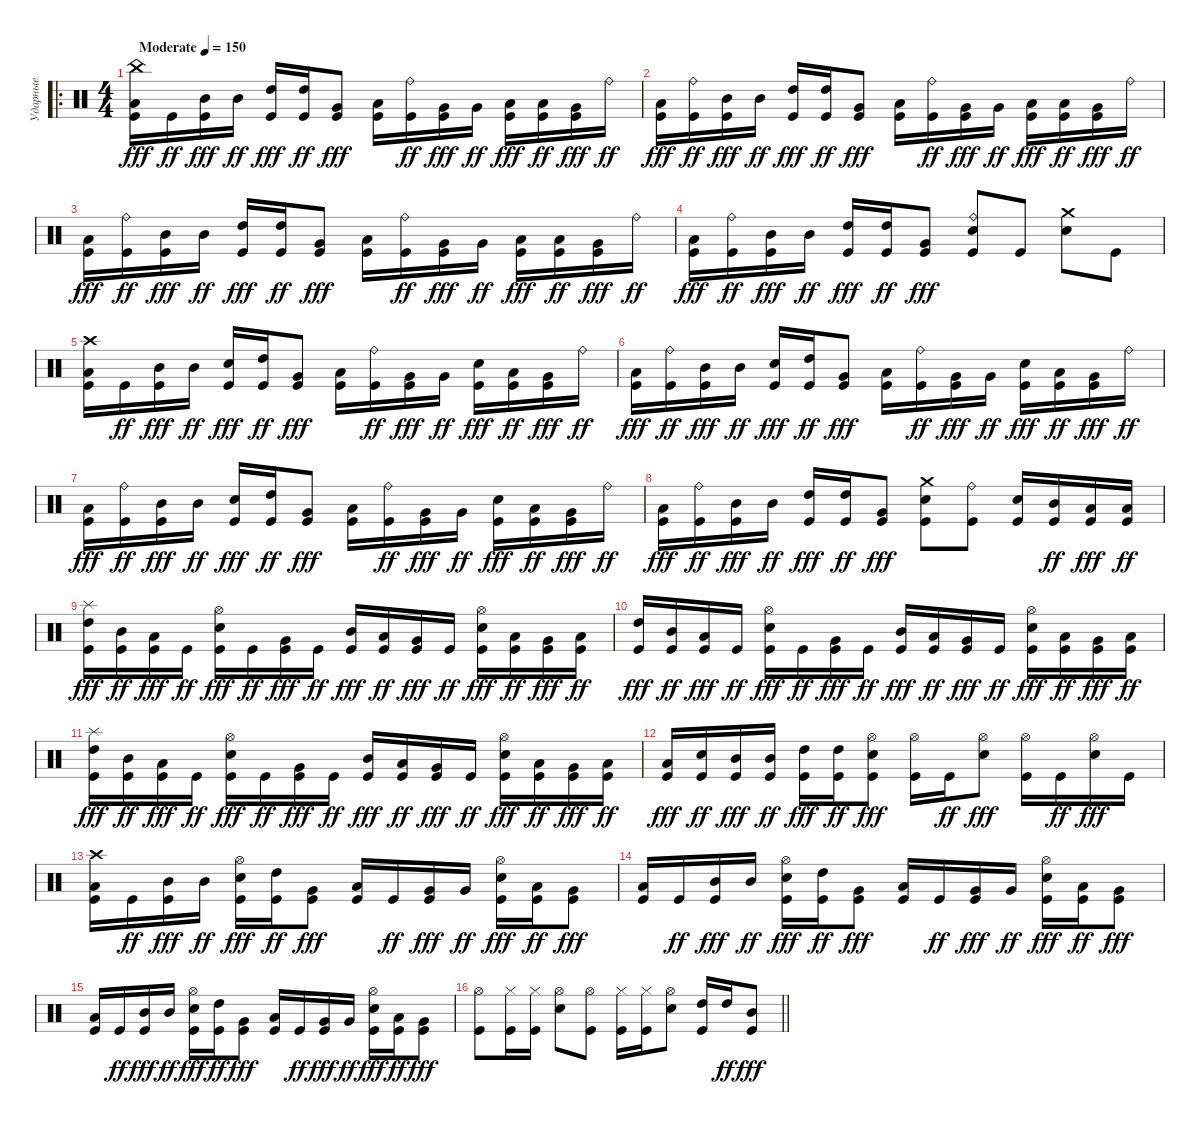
\track ("Ударные" "Ударные") {instrument percussion}
\staff {score}
\articulation defaults
\ro
\ts (4 4)
\tempo (150 "Moderate")
\clef neutral
\ks c
("China (hit)" "Low Tom (hit)" "Kick (hit)").16{dy fff} "Kick (hit)".16{dy ff} ("Mid Tom (hit)" "Kick (hit)").16{dy fff} "Mid Tom (hit)".16{dy ff} ("High Tom (hit)" "Kick (hit)").16{dy fff} ("High Tom (hit)" "Kick (hit)").16{dy ff} ("Very Low Tom (hit)" "Kick (hit)").8{dy fff} ("Low Floor Tom (hit)" "Kick (hit)").16 ("Ride (bell)" "Kick (hit)").16{dy ff} ("Very Low Tom (hit)" "Kick (hit)").16{dy fff} "Very Low Tom (hit)".16{dy ff} ("Low Tom (hit)" "Kick (hit)").16{dy fff} ("Low Tom (hit)" "Kick (hit)").16{dy ff} ("Very Low Tom (hit)" "Kick (hit)").16{dy fff} "Ride (bell)".16{dy ff} |
("Low Tom (hit)" "Kick (hit)").16{dy fff} ("Ride (bell)" "Kick (hit)").16{dy ff} ("Mid Tom (hit)" "Kick (hit)").16{dy fff} "Mid Tom (hit)".16{dy ff} ("High Tom (hit)" "Kick (hit)").16{dy fff} ("High Tom (hit)" "Kick (hit)").16{dy ff} ("Very Low Tom (hit)" "Kick (hit)").8{dy fff} ("Low Floor Tom (hit)" "Kick (hit)").16 ("Ride (bell)" "Kick (hit)").16{dy ff} ("Very Low Tom (hit)" "Kick (hit)").16{dy fff} "Very Low Tom (hit)".16{dy ff} ("Low Tom (hit)" "Kick (hit)").16{dy fff} ("Low Tom (hit)" "Kick (hit)").16{dy ff} ("Very Low Tom (hit)" "Kick (hit)").16{dy fff} "Ride (bell)".16{dy ff} |
("Low Tom (hit)" "Kick (hit)").16{dy fff} ("Ride (bell)" "Kick (hit)").16{dy ff} ("Mid Tom (hit)" "Kick (hit)").16{dy fff} "Mid Tom (hit)".16{dy ff} ("High Tom (hit)" "Kick (hit)").16{dy fff} ("High Tom (hit)" "Kick (hit)").16{dy ff} ("Very Low Tom (hit)" "Kick (hit)").8{dy fff} ("Low Floor Tom (hit)" "Kick (hit)").16 ("Ride (bell)" "Kick (hit)").16{dy ff} ("Very Low Tom (hit)" "Kick (hit)").16{dy fff} "Very Low Tom (hit)".16{dy ff} ("Low Tom (hit)" "Kick (hit)").16{dy fff} ("Low Tom (hit)" "Kick (hit)").16{dy ff} ("Very Low Tom (hit)" "Kick (hit)").16{dy fff} "Ride (bell)".16{dy ff} |
("Low Tom (hit)" "Kick (hit)").16{dy fff} ("Ride (bell)" "Kick (hit)").16{dy ff} ("Mid Tom (hit)" "Kick (hit)").16{dy fff} "Mid Tom (hit)".16{dy ff} ("High Tom (hit)" "Kick (hit)").16{dy fff} ("High Tom (hit)" "Kick (hit)").16{dy ff} ("Very Low Tom (hit)" "Kick (hit)").8{dy fff} ("Ride (bell)" "Electric Snare (hit)" "Kick (hit)").8 "Kick (hit)".8 ("Crash medium (hit)" "Electric Snare (hit)").8 "Kick (hit)".8 |
("Crash high (hit)" "Low Tom (hit)" "Kick (hit)").16 "Kick (hit)".16{dy ff} ("Mid Tom (hit)" "Kick (hit)").16{dy fff} "Mid Tom (hit)".16{dy ff} ("Electric Snare (hit)" "Kick (hit)").16{dy fff} ("High Tom (hit)" "Kick (hit)").16{dy ff} ("Very Low Tom (hit)" "Kick (hit)").8{dy fff} ("Low Floor Tom (hit)" "Kick (hit)").16 ("Ride (bell)" "Kick (hit)").16{dy ff} ("Very Low Tom (hit)" "Kick (hit)").16{dy fff} "Very Low Tom (hit)".16{dy ff} ("Electric Snare (hit)" "Kick (hit)").16{dy fff} ("Low Tom (hit)" "Kick (hit)").16{dy ff} ("Very Low Tom (hit)" "Kick (hit)").16{dy fff} "Ride (bell)".16{dy ff} |
("Low Tom (hit)" "Kick (hit)").16{dy fff} ("Ride (bell)" "Kick (hit)").16{dy ff} ("Mid Tom (hit)" "Kick (hit)").16{dy fff} "Mid Tom (hit)".16{dy ff} ("Electric Snare (hit)" "Kick (hit)").16{dy fff} ("High Tom (hit)" "Kick (hit)").16{dy ff} ("Very Low Tom (hit)" "Kick (hit)").8{dy fff} ("Low Floor Tom (hit)" "Kick (hit)").16 ("Ride (bell)" "Kick (hit)").16{dy ff} ("Very Low Tom (hit)" "Kick (hit)").16{dy fff} "Very Low Tom (hit)".16{dy ff} ("Electric Snare (hit)" "Kick (hit)").16{dy fff} ("Low Tom (hit)" "Kick (hit)").16{dy ff} ("Very Low Tom (hit)" "Kick (hit)").16{dy fff} "Ride (bell)".16{dy ff} |
("Low Tom (hit)" "Kick (hit)").16{dy fff} ("Ride (bell)" "Kick (hit)").16{dy ff} ("Mid Tom (hit)" "Kick (hit)").16{dy fff} "Mid Tom (hit)".16{dy ff} ("Electric Snare (hit)" "Kick (hit)").16{dy fff} ("High Tom (hit)" "Kick (hit)").16{dy ff} ("Very Low Tom (hit)" "Kick (hit)").8{dy fff} ("Low Floor Tom (hit)" "Kick (hit)").16 ("Ride (bell)" "Kick (hit)").16{dy ff} ("Very Low Tom (hit)" "Kick (hit)").16{dy fff} "Very Low Tom (hit)".16{dy ff} ("Electric Snare (hit)" "Kick (hit)").16{dy fff} ("Low Tom (hit)" "Kick (hit)").16{dy ff} ("Very Low Tom (hit)" "Kick (hit)").16{dy fff} "Ride (bell)".16{dy ff} |
("Low Tom (hit)" "Kick (hit)").16{dy fff} ("Ride (bell)" "Kick (hit)").16{dy ff} ("Mid Tom (hit)" "Kick (hit)").16{dy fff} "Mid Tom (hit)".16{dy ff} ("High Tom (hit)" "Kick (hit)").16{dy fff} ("High Tom (hit)" "Kick (hit)").16{dy ff} ("Very Low Tom (hit)" "Kick (hit)").8{dy fff} ("Crash medium (hit)" "Electric Snare (hit)" "Kick (hit)").8 ("Ride (bell)" "Kick (hit)").8 ("Electric Snare (hit)" "Kick (hit)").16 ("Mid Tom (hit)" "Kick (hit)").16{dy ff} ("Low Tom (hit)" "Kick (hit)").16{dy fff} ("Low Floor Tom (hit)" "Kick (hit)").16{dy ff} |
("Splash (hit)" "High Tom (hit)" "Kick (hit)").16{dy fff} ("Mid Tom (hit)" "Kick (hit)").16{dy ff} ("Low Tom (hit)" "Kick (hit)").16{dy fff} "Kick (hit)".16{dy ff} ("Hi-Hat (open)" "Electric Snare (hit)" "Kick (hit)").16{dy fff} "Kick (hit)".16{dy ff} ("Very Low Tom (hit)" "Kick (hit)").16{dy fff} "Kick (hit)".16{dy ff} ("Mid Tom (hit)" "Kick (hit)").16{dy fff} ("Low Tom (hit)" "Kick (hit)").16{dy ff} ("Very Low Tom (hit)" "Kick (hit)").16{dy fff} "Kick (hit)".16{dy ff} ("Hi-Hat (open)" "Electric Snare (hit)" "Kick (hit)").16{dy fff} ("Low Tom (hit)" "Kick (hit)").16{dy ff} ("Very Low Tom (hit)" "Kick (hit)").16{dy fff} ("Low Floor Tom (hit)" "Kick (hit)").16{dy ff} |
("High Tom (hit)" "Kick (hit)").16{dy fff} ("Mid Tom (hit)" "Kick (hit)").16{dy ff} ("Low Tom (hit)" "Kick (hit)").16{dy fff} "Kick (hit)".16{dy ff} ("Hi-Hat (open)" "Electric Snare (hit)" "Kick (hit)").16{dy fff} "Kick (hit)".16{dy ff} ("Very Low Tom (hit)" "Kick (hit)").16{dy fff} "Kick (hit)".16{dy ff} ("Mid Tom (hit)" "Kick (hit)").16{dy fff} ("Low Tom (hit)" "Kick (hit)").16{dy ff} ("Very Low Tom (hit)" "Kick (hit)").16{dy fff} "Kick (hit)".16{dy ff} ("Hi-Hat (open)" "Electric Snare (hit)" "Kick (hit)").16{dy fff} ("Low Tom (hit)" "Kick (hit)").16{dy ff} ("Very Low Tom (hit)" "Kick (hit)").16{dy fff} ("Low Floor Tom (hit)" "Kick (hit)").16{dy ff} |
("Splash (hit)" "High Tom (hit)" "Kick (hit)").16{dy fff} ("Mid Tom (hit)" "Kick (hit)").16{dy ff} ("Low Tom (hit)" "Kick (hit)").16{dy fff} "Kick (hit)".16{dy ff} ("Hi-Hat (open)" "Electric Snare (hit)" "Kick (hit)").16{dy fff} "Kick (hit)".16{dy ff} ("Very Low Tom (hit)" "Kick (hit)").16{dy fff} "Kick (hit)".16{dy ff} ("Mid Tom (hit)" "Kick (hit)").16{dy fff} ("Low Tom (hit)" "Kick (hit)").16{dy ff} ("Very Low Tom (hit)" "Kick (hit)").16{dy fff} "Kick (hit)".16{dy ff} ("Hi-Hat (open)" "Electric Snare (hit)" "Kick (hit)").16{dy fff} ("Low Tom (hit)" "Kick (hit)").16{dy ff} ("Very Low Tom (hit)" "Kick (hit)").16{dy fff} ("Low Floor Tom (hit)" "Kick (hit)").16{dy ff} |
("Low Tom (hit)" "Kick (hit)").16{dy fff} ("Electric Snare (hit)" "Kick (hit)").16{dy ff} ("Mid Tom (hit)" "Kick (hit)").16{dy fff} ("Mid Tom (hit)" "Kick (hit)").16{dy ff} ("High Tom (hit)" "Kick (hit)").16{dy fff} ("High Tom (hit)" "Kick (hit)").16{dy ff} ("Hi-Hat (open)" "Electric Snare (hit)" "Kick (hit)").8{dy fff} ("Hi-Hat (open)" "Kick (hit)").16 "Kick (hit)".16{dy ff} ("Hi-Hat (open)" "Electric Snare (hit)").8{dy fff} ("Hi-Hat (open)" "Kick (hit)").16 "Kick (hit)".16{dy ff} ("Hi-Hat (open)" "Electric Snare (hit)").16{dy fff} "Kick (hit)".16 |
("Crash high (hit)" "Low Tom (hit)" "Kick (hit)").16 "Kick (hit)".16{dy ff} ("Mid Tom (hit)" "Kick (hit)").16{dy fff} "Mid Tom (hit)".16{dy ff} ("Hi-Hat (open)" "Electric Snare (hit)" "Kick (hit)").16{dy fff} ("High Tom (hit)" "Kick (hit)").16{dy ff} ("Very Low Tom (hit)" "Kick (hit)").8{dy fff} ("Low Floor Tom (hit)" "Kick (hit)").16 "Kick (hit)".16{dy ff} ("Very Low Tom (hit)" "Kick (hit)").16{dy fff} "Very Low Tom (hit)".16{dy ff} ("Hi-Hat (open)" "Electric Snare (hit)" "Kick (hit)").16{dy fff} ("Low Tom (hit)" "Kick (hit)").16{dy ff} ("Very Low Tom (hit)" "Kick (hit)").8{dy fff} |
("Low Tom (hit)" "Kick (hit)").16 "Kick (hit)".16{dy ff} ("Mid Tom (hit)" "Kick (hit)").16{dy fff} "Mid Tom (hit)".16{dy ff} ("Hi-Hat (open)" "Electric Snare (hit)" "Kick (hit)").16{dy fff} ("High Tom (hit)" "Kick (hit)").16{dy ff} ("Very Low Tom (hit)" "Kick (hit)").8{dy fff} ("Low Floor Tom (hit)" "Kick (hit)").16 "Kick (hit)".16{dy ff} ("Very Low Tom (hit)" "Kick (hit)").16{dy fff} "Very Low Tom (hit)".16{dy ff} ("Hi-Hat (open)" "Electric Snare (hit)" "Kick (hit)").16{dy fff} ("Low Tom (hit)" "Kick (hit)").16{dy ff} ("Very Low Tom (hit)" "Kick (hit)").8{dy fff} |
("Low Tom (hit)" "Kick (hit)").16 "Kick (hit)".16{dy ff} ("Mid Tom (hit)" "Kick (hit)").16{dy fff} "Mid Tom (hit)".16{dy ff} ("Hi-Hat (open)" "Electric Snare (hit)" "Kick (hit)").16{dy fff} ("High Tom (hit)" "Kick (hit)").16{dy ff} ("Very Low Tom (hit)" "Kick (hit)").8{dy fff} ("Low Floor Tom (hit)" "Kick (hit)").16 "Kick (hit)".16{dy ff} ("Very Low Tom (hit)" "Kick (hit)").16{dy fff} "Very Low Tom (hit)".16{dy ff} ("Hi-Hat (open)" "Electric Snare (hit)" "Kick (hit)").16{dy fff} ("Low Tom (hit)" "Kick (hit)").16{dy ff} ("Very Low Tom (hit)" "Kick (hit)").8{dy fff} |
\barLineRight lightlight
("Hi-Hat (open)" "Kick (hit)").8 ("Hi-Hat (closed)" "Kick (hit)").16 ("Hi-Hat (closed)" "Kick (hit)").16 ("Hi-Hat (open)" "Electric Snare (hit)").8 ("Hi-Hat (open)" "Kick (hit)").8 ("Hi-Hat (closed)" "Kick (hit)").16 ("Hi-Hat (closed)" "Kick (hit)").16 ("Hi-Hat (open)" "Electric Snare (hit)").8 ("High Tom (hit)" "Kick (hit)").16 "High Tom (hit)".16{dy ff} ("Mid Tom (hit)" "Kick (hit)").8{dy fff}
